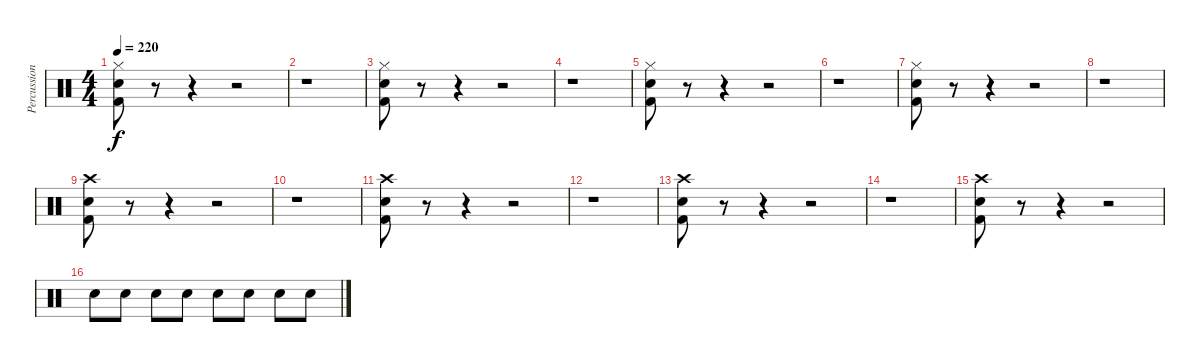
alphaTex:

\track ("Percussion" "Percussion") {instrument percussion}
\staff {score}
\articulation defaults
\ts (4 4)
\tempo 220
\clef neutral
\ks c
("Hi-Hat (closed)" "Electric Snare (hit)" "Kick (hit) 2").8{dy f} r.8 r.4 r.2 |
r.1 |
("Hi-Hat (closed)" "Electric Snare (hit)" "Kick (hit) 2").8 r.8 r.4 r.2 |
r.1 |
("Hi-Hat (closed)" "Electric Snare (hit)" "Kick (hit) 2").8 r.8 r.4 r.2 |
r.1 |
("Hi-Hat (closed)" "Electric Snare (hit)" "Kick (hit) 2").8 r.8 r.4 r.2 |
r.1 |
("Crash high (hit)" "Electric Snare (hit)" "Kick (hit) 2").8 r.8 r.4 r.2 |
r.1 |
("Crash high (hit)" "Electric Snare (hit)" "Kick (hit) 2").8 r.8 r.4 r.2 |
r.1 |
("Crash high (hit)" "Electric Snare (hit)" "Kick (hit) 2").8 r.8 r.4 r.2 |
r.1 |
("Crash high (hit)" "Electric Snare (hit)" "Kick (hit) 2").8 r.8 r.4 r.2 |
"Electric Snare (hit)".8 "Electric Snare (hit)".8 "Electric Snare (hit)".8 "Electric Snare (hit)".8 "Electric Snare (hit)".8 "Electric Snare (hit)".8 "Electric Snare (hit)".8 "Electric Snare (hit)".8
